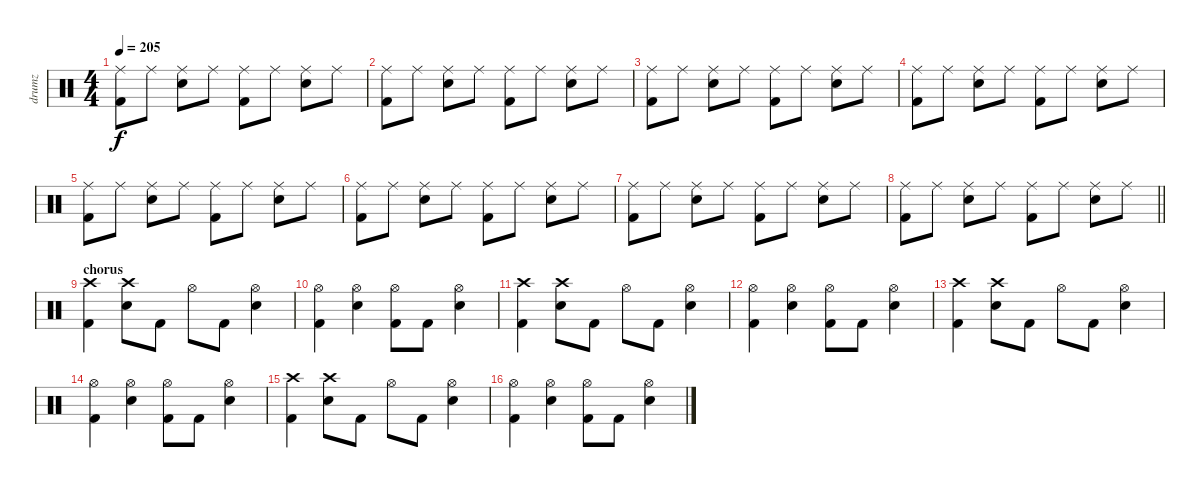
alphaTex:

\track ("drumz" "drumz") {instrument percussion}
\staff {score}
\articulation defaults
\ts (4 4)
\tempo 205
\clef neutral
\ks c
("Ride (middle)" "Kick (hit) 2").8{dy f} "Ride (middle)".8 ("Ride (middle)" "Electric Snare (hit)").8 "Ride (middle)".8 ("Ride (middle)" "Kick (hit) 2").8 "Ride (middle)".8 ("Ride (middle)" "Electric Snare (hit)").8 "Ride (middle)".8 |
("Ride (middle)" "Kick (hit) 2").8 "Ride (middle)".8 ("Ride (middle)" "Electric Snare (hit)").8 "Ride (middle)".8 ("Ride (middle)" "Kick (hit) 2").8 "Ride (middle)".8 ("Ride (middle)" "Electric Snare (hit)").8 "Ride (middle)".8 |
("Ride (middle)" "Kick (hit) 2").8 "Ride (middle)".8 ("Ride (middle)" "Electric Snare (hit)").8 "Ride (middle)".8 ("Ride (middle)" "Kick (hit) 2").8 "Ride (middle)".8 ("Ride (middle)" "Electric Snare (hit)").8 "Ride (middle)".8 |
("Ride (middle)" "Kick (hit) 2").8 "Ride (middle)".8 ("Ride (middle)" "Electric Snare (hit)").8 "Ride (middle)".8 ("Ride (middle)" "Kick (hit) 2").8 "Ride (middle)".8 ("Ride (middle)" "Electric Snare (hit)").8 "Ride (middle)".8 |
("Ride (middle)" "Kick (hit) 2").8 "Ride (middle)".8 ("Ride (middle)" "Electric Snare (hit)").8 "Ride (middle)".8 ("Ride (middle)" "Kick (hit) 2").8 "Ride (middle)".8 ("Ride (middle)" "Electric Snare (hit)").8 "Ride (middle)".8 |
("Ride (middle)" "Kick (hit) 2").8 "Ride (middle)".8 ("Ride (middle)" "Electric Snare (hit)").8 "Ride (middle)".8 ("Ride (middle)" "Kick (hit) 2").8 "Ride (middle)".8 ("Ride (middle)" "Electric Snare (hit)").8 "Ride (middle)".8 |
("Ride (middle)" "Kick (hit) 2").8 "Ride (middle)".8 ("Ride (middle)" "Electric Snare (hit)").8 "Ride (middle)".8 ("Ride (middle)" "Kick (hit) 2").8 "Ride (middle)".8 ("Ride (middle)" "Electric Snare (hit)").8 "Ride (middle)".8 |
\barLineRight lightlight
("Ride (middle)" "Kick (hit) 2").8 "Ride (middle)".8 ("Ride (middle)" "Electric Snare (hit)").8 "Ride (middle)".8 ("Ride (middle)" "Kick (hit) 2").8 "Ride (middle)".8 ("Ride (middle)" "Electric Snare (hit)").8 "Ride (middle)".8 |
\section ("" "chorus")
("Crash high (hit)" "Kick (hit) 2").4 ("Crash high (hit)" "Electric Snare (hit)").8 "Kick (hit) 2".8 "Hi-Hat (open)".8 "Kick (hit) 2".8 ("Hi-Hat (open)" "Electric Snare (hit)").4 |
("Hi-Hat (open)" "Kick (hit) 2").4 ("Hi-Hat (open)" "Electric Snare (hit)").4 ("Hi-Hat (open)" "Kick (hit) 2").8 "Kick (hit) 2".8 ("Hi-Hat (open)" "Electric Snare (hit)").4 |
("Crash high (hit)" "Kick (hit) 2").4 ("Crash high (hit)" "Electric Snare (hit)").8 "Kick (hit) 2".8 "Hi-Hat (open)".8 "Kick (hit) 2".8 ("Hi-Hat (open)" "Electric Snare (hit)").4 |
("Hi-Hat (open)" "Kick (hit) 2").4 ("Hi-Hat (open)" "Electric Snare (hit)").4 ("Hi-Hat (open)" "Kick (hit) 2").8 "Kick (hit) 2".8 ("Hi-Hat (open)" "Electric Snare (hit)").4 |
("Crash high (hit)" "Kick (hit) 2").4 ("Crash high (hit)" "Electric Snare (hit)").8 "Kick (hit) 2".8 "Hi-Hat (open)".8 "Kick (hit) 2".8 ("Hi-Hat (open)" "Electric Snare (hit)").4 |
("Hi-Hat (open)" "Kick (hit) 2").4 ("Hi-Hat (open)" "Electric Snare (hit)").4 ("Hi-Hat (open)" "Kick (hit) 2").8 "Kick (hit) 2".8 ("Hi-Hat (open)" "Electric Snare (hit)").4 |
("Crash high (hit)" "Kick (hit) 2").4 ("Crash high (hit)" "Electric Snare (hit)").8 "Kick (hit) 2".8 "Hi-Hat (open)".8 "Kick (hit) 2".8 ("Hi-Hat (open)" "Electric Snare (hit)").4 |
("Hi-Hat (open)" "Kick (hit) 2").4 ("Hi-Hat (open)" "Electric Snare (hit)").4 ("Hi-Hat (open)" "Kick (hit) 2").8 "Kick (hit) 2".8 ("Hi-Hat (open)" "Electric Snare (hit)").4
